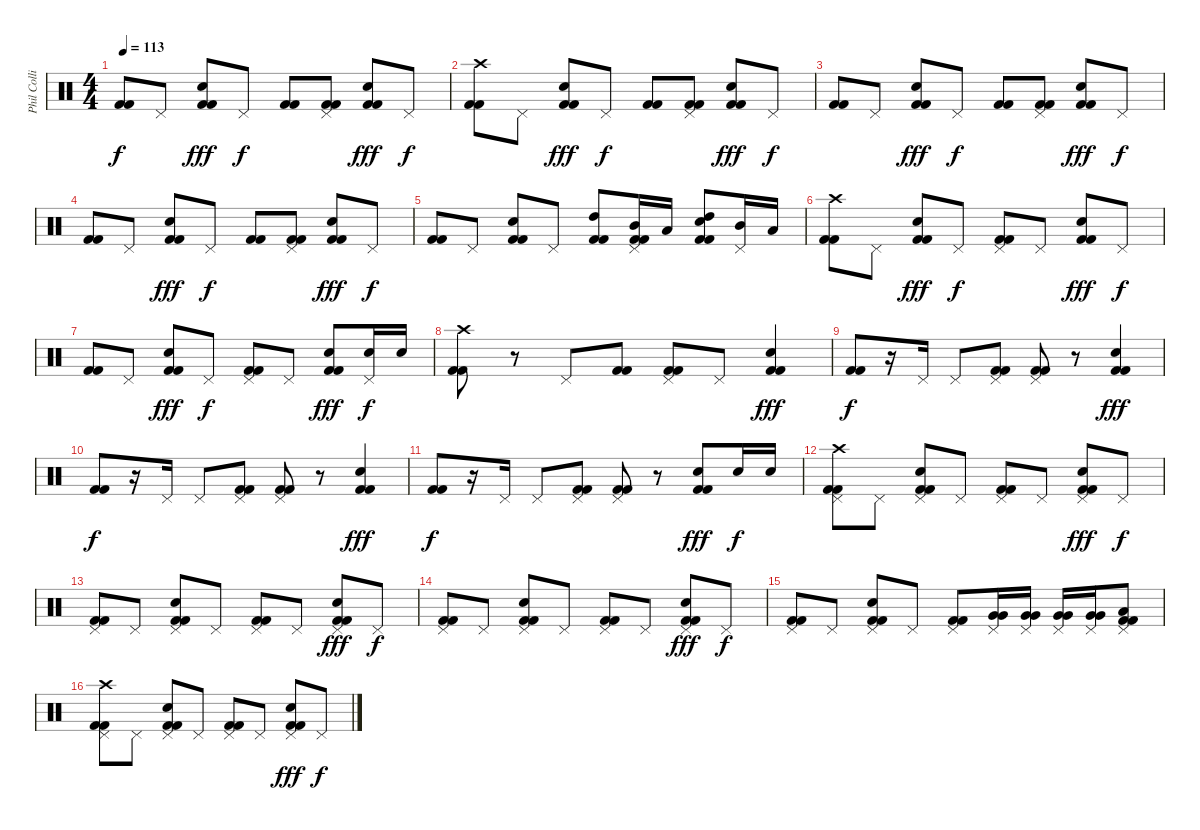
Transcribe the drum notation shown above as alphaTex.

\track ("Phil Collins" "Phil Colli") {instrument percussion}
\staff {score}
\articulation defaults
\ts (4 4)
\tempo 113
\clef neutral
\ks c
("Kick (hit) 2" "Kick (hit) 2").8{dy f} "Pedal Hi-Hat (hit)".8 ("Electric Snare (hit)" "Kick (hit) 2" "Kick (hit) 2").8{dy fff} "Pedal Hi-Hat (hit)".8{dy f} ("Kick (hit) 2" "Kick (hit) 2").8 ("Pedal Hi-Hat (hit)" "Kick (hit) 2" "Kick (hit) 2").8 ("Electric Snare (hit)" "Kick (hit) 2" "Kick (hit) 2").8{dy fff} "Pedal Hi-Hat (hit)".8{dy f} |
("Crash high (hit)" "Kick (hit) 2" "Kick (hit) 2").8 "Pedal Hi-Hat (hit)".8 ("Electric Snare (hit)" "Kick (hit) 2" "Kick (hit) 2").8{dy fff} "Pedal Hi-Hat (hit)".8{dy f} ("Kick (hit) 2" "Kick (hit) 2").8 ("Pedal Hi-Hat (hit)" "Kick (hit) 2" "Kick (hit) 2").8 ("Electric Snare (hit)" "Kick (hit) 2" "Kick (hit) 2").8{dy fff} "Pedal Hi-Hat (hit)".8{dy f} |
("Kick (hit) 2" "Kick (hit) 2").8 "Pedal Hi-Hat (hit)".8 ("Electric Snare (hit)" "Kick (hit) 2" "Kick (hit) 2").8{dy fff} "Pedal Hi-Hat (hit)".8{dy f} ("Kick (hit) 2" "Kick (hit) 2").8 ("Pedal Hi-Hat (hit)" "Kick (hit) 2" "Kick (hit) 2").8 ("Electric Snare (hit)" "Kick (hit) 2" "Kick (hit) 2").8{dy fff} "Pedal Hi-Hat (hit)".8{dy f} |
("Kick (hit) 2" "Kick (hit) 2").8 "Pedal Hi-Hat (hit)".8 ("Electric Snare (hit)" "Kick (hit) 2" "Kick (hit) 2").8{dy fff} "Pedal Hi-Hat (hit)".8{dy f} ("Kick (hit) 2" "Kick (hit) 2").8 ("Pedal Hi-Hat (hit)" "Kick (hit) 2" "Kick (hit) 2").8 ("Electric Snare (hit)" "Kick (hit) 2" "Kick (hit) 2").8{dy fff} "Pedal Hi-Hat (hit)".8{dy f} |
("Kick (hit) 2" "Kick (hit) 2").8 "Pedal Hi-Hat (hit)".8 ("Electric Snare (hit)" "Kick (hit) 2" "Kick (hit) 2").8 "Pedal Hi-Hat (hit)".8 ("High Tom (hit)" "Kick (hit) 2" "Kick (hit) 2").8 ("Pedal Hi-Hat (hit)" "Mid Tom (hit)" "Kick (hit) 2" "Kick (hit) 2").16 "Low Tom (hit)".16 ("High Tom (hit)" "Electric Snare (hit)" "Kick (hit) 2" "Kick (hit) 2").8 ("Pedal Hi-Hat (hit)" "Mid Tom (hit)").16 "Low Tom (hit)".16 |
("Crash high (hit)" "Kick (hit) 2" "Kick (hit) 2").8 "Pedal Hi-Hat (hit)".8 ("Electric Snare (hit)" "Kick (hit) 2" "Kick (hit) 2").8{dy fff} "Pedal Hi-Hat (hit)".8{dy f} ("Pedal Hi-Hat (hit)" "Kick (hit) 2" "Kick (hit) 2").8 "Pedal Hi-Hat (hit)".8 ("Electric Snare (hit)" "Kick (hit) 2" "Kick (hit) 2").8{dy fff} "Pedal Hi-Hat (hit)".8{dy f} |
("Kick (hit) 2" "Kick (hit) 2").8 "Pedal Hi-Hat (hit)".8 ("Electric Snare (hit)" "Kick (hit) 2" "Kick (hit) 2").8{dy fff} "Pedal Hi-Hat (hit)".8{dy f} ("Pedal Hi-Hat (hit)" "Kick (hit) 2" "Kick (hit) 2").8 "Pedal Hi-Hat (hit)".8 ("Electric Snare (hit)" "Kick (hit) 2" "Kick (hit) 2").8{dy fff} ("Pedal Hi-Hat (hit)" "Electric Snare (hit)").16{dy f} "Electric Snare (hit)".16 |
("Crash high (hit)" "Kick (hit) 2" "Kick (hit) 2").8 r.8 "Pedal Hi-Hat (hit)".8 ("Kick (hit) 2" "Kick (hit) 2").8 ("Pedal Hi-Hat (hit)" "Kick (hit) 2" "Kick (hit) 2").8 "Pedal Hi-Hat (hit)".8 ("Electric Snare (hit)" "Kick (hit) 2" "Kick (hit) 2").4{dy fff} |
("Kick (hit) 2" "Kick (hit) 2").8{dy f} r.16 "Pedal Hi-Hat (hit)".16 "Pedal Hi-Hat (hit)".8 ("Pedal Hi-Hat (hit)" "Kick (hit) 2" "Kick (hit) 2").8 ("Pedal Hi-Hat (hit)" "Kick (hit) 2" "Kick (hit) 2").8 r.8 ("Electric Snare (hit)" "Kick (hit) 2" "Kick (hit) 2").4{dy fff} |
("Kick (hit) 2" "Kick (hit) 2").8{dy f} r.16 "Pedal Hi-Hat (hit)".16 "Pedal Hi-Hat (hit)".8 ("Pedal Hi-Hat (hit)" "Kick (hit) 2" "Kick (hit) 2").8 ("Pedal Hi-Hat (hit)" "Kick (hit) 2" "Kick (hit) 2").8 r.8 ("Electric Snare (hit)" "Kick (hit) 2" "Kick (hit) 2").4{dy fff} |
("Kick (hit) 2" "Kick (hit) 2").8{dy f} r.16 "Pedal Hi-Hat (hit)".16 "Pedal Hi-Hat (hit)".8 ("Pedal Hi-Hat (hit)" "Kick (hit) 2" "Kick (hit) 2").8 ("Pedal Hi-Hat (hit)" "Kick (hit) 2" "Kick (hit) 2").8 r.8 ("Electric Snare (hit)" "Kick (hit) 2" "Kick (hit) 2").8{dy fff} "Electric Snare (hit)".16{dy f} "Electric Snare (hit)".16 |
("Pedal Hi-Hat (hit)" "Crash high (hit)" "Kick (hit) 2" "Kick (hit) 2").8 "Pedal Hi-Hat (hit)".8 ("Pedal Hi-Hat (hit)" "Electric Snare (hit)" "Kick (hit) 2" "Kick (hit) 2").8 "Pedal Hi-Hat (hit)".8 ("Pedal Hi-Hat (hit)" "Kick (hit) 2" "Kick (hit) 2").8 "Pedal Hi-Hat (hit)".8 ("Pedal Hi-Hat (hit)" "Electric Snare (hit)" "Kick (hit) 2" "Kick (hit) 2").8{dy fff} "Pedal Hi-Hat (hit)".8{dy f} |
("Pedal Hi-Hat (hit)" "Kick (hit) 2" "Kick (hit) 2").8 "Pedal Hi-Hat (hit)".8 ("Pedal Hi-Hat (hit)" "Electric Snare (hit)" "Kick (hit) 2" "Kick (hit) 2").8 "Pedal Hi-Hat (hit)".8 ("Pedal Hi-Hat (hit)" "Kick (hit) 2" "Kick (hit) 2").8 "Pedal Hi-Hat (hit)".8 ("Pedal Hi-Hat (hit)" "Electric Snare (hit)" "Kick (hit) 2" "Kick (hit) 2").8{dy fff} "Pedal Hi-Hat (hit)".8{dy f} |
("Pedal Hi-Hat (hit)" "Kick (hit) 2" "Kick (hit) 2").8 "Pedal Hi-Hat (hit)".8 ("Pedal Hi-Hat (hit)" "Electric Snare (hit)" "Kick (hit) 2" "Kick (hit) 2").8 "Pedal Hi-Hat (hit)".8 ("Pedal Hi-Hat (hit)" "Kick (hit) 2" "Kick (hit) 2").8 "Pedal Hi-Hat (hit)".8 ("Pedal Hi-Hat (hit)" "Electric Snare (hit)" "Kick (hit) 2" "Kick (hit) 2").8{dy fff} "Pedal Hi-Hat (hit)".8{dy f} |
("Pedal Hi-Hat (hit)" "Kick (hit) 2" "Kick (hit) 2").8 "Pedal Hi-Hat (hit)".8 ("Pedal Hi-Hat (hit)" "Electric Snare (hit)" "Kick (hit) 2" "Kick (hit) 2").8 "Pedal Hi-Hat (hit)".8 ("Pedal Hi-Hat (hit)" "Kick (hit) 2" "Kick (hit) 2").8 ("Pedal Hi-Hat (hit)" "Very Low Tom (hit)" "Very Low Tom (hit)").16 ("Pedal Hi-Hat (hit)" "Very Low Tom (hit)" "Very Low Tom (hit)").16 ("Pedal Hi-Hat (hit)" "Very Low Tom (hit)" "Very Low Tom (hit)").16 ("Pedal Hi-Hat (hit)" "Very Low Tom (hit)" "Very Low Tom (hit)").16 ("Pedal Hi-Hat (hit)" "Low Tom (hit)" "Kick (hit) 2" "Kick (hit) 2").8 |
("Pedal Hi-Hat (hit)" "Crash high (hit)" "Kick (hit) 2" "Kick (hit) 2").8 "Pedal Hi-Hat (hit)".8 ("Pedal Hi-Hat (hit)" "Electric Snare (hit)" "Kick (hit) 2" "Kick (hit) 2").8 "Pedal Hi-Hat (hit)".8 ("Pedal Hi-Hat (hit)" "Kick (hit) 2" "Kick (hit) 2").8 "Pedal Hi-Hat (hit)".8 ("Pedal Hi-Hat (hit)" "Electric Snare (hit)" "Kick (hit) 2" "Kick (hit) 2").8{dy fff} "Pedal Hi-Hat (hit)".8{dy f}
